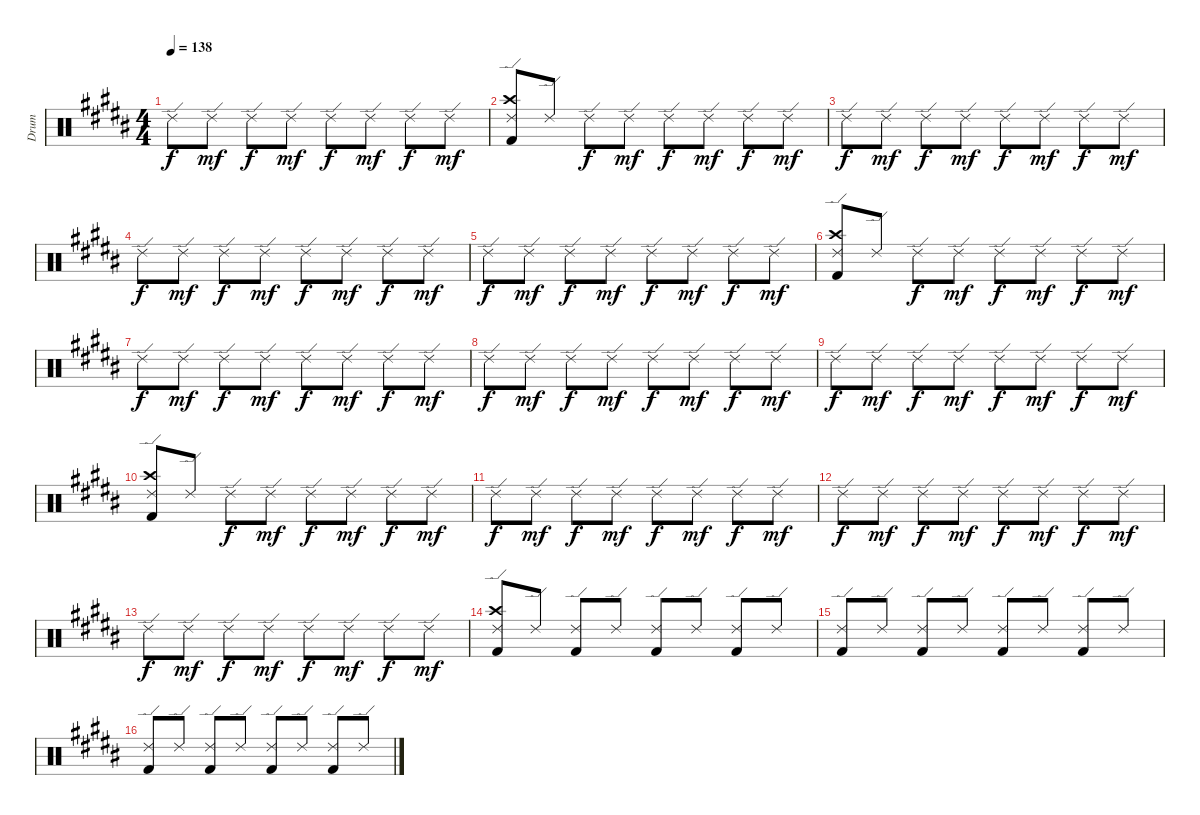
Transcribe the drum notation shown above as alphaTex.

\track ("Drum" "Drum") {instrument percussion}
\staff {score}
\articulation defaults
\ts (4 4)
\tempo 138
\clef neutral
\ks g#minor "Ride (edge) 2".8{dy f} "Ride (edge) 2".8{dy mf} "Ride (edge) 2".8{dy f} "Ride (edge) 2".8{dy mf} "Ride (edge) 2".8{dy f} "Ride (edge) 2".8{dy mf} "Ride (edge) 2".8{dy f} "Ride (edge) 2".8{dy mf}
|
\ks b
("Ride (edge) 2" "Crash high (hit)" "Kick (hit) 2").8 "Ride (edge) 2".8 "Ride (edge) 2".8{dy f} "Ride (edge) 2".8{dy mf} "Ride (edge) 2".8{dy f} "Ride (edge) 2".8{dy mf} "Ride (edge) 2".8{dy f} "Ride (edge) 2".8{dy mf} |
\ks g#minor "Ride (edge) 2".8{dy f} "Ride (edge) 2".8{dy mf} "Ride (edge) 2".8{dy f} "Ride (edge) 2".8{dy mf} "Ride (edge) 2".8{dy f} "Ride (edge) 2".8{dy mf} "Ride (edge) 2".8{dy f} "Ride (edge) 2".8{dy mf}
|
"Ride (edge) 2".8{dy f} "Ride (edge) 2".8{dy mf} "Ride (edge) 2".8{dy f} "Ride (edge) 2".8{dy mf} "Ride (edge) 2".8{dy f} "Ride (edge) 2".8{dy mf} "Ride (edge) 2".8{dy f} "Ride (edge) 2".8{dy mf} |
"Ride (edge) 2".8{dy f} "Ride (edge) 2".8{dy mf} "Ride (edge) 2".8{dy f} "Ride (edge) 2".8{dy mf} "Ride (edge) 2".8{dy f} "Ride (edge) 2".8{dy mf} "Ride (edge) 2".8{dy f} "Ride (edge) 2".8{dy mf} |
\ks b
("Ride (edge) 2" "Crash high (hit)" "Kick (hit) 2").8 "Ride (edge) 2".8 "Ride (edge) 2".8{dy f} "Ride (edge) 2".8{dy mf} "Ride (edge) 2".8{dy f} "Ride (edge) 2".8{dy mf} "Ride (edge) 2".8{dy f} "Ride (edge) 2".8{dy mf} |
\ks g#minor "Ride (edge) 2".8{dy f} "Ride (edge) 2".8{dy mf} "Ride (edge) 2".8{dy f} "Ride (edge) 2".8{dy mf} "Ride (edge) 2".8{dy f} "Ride (edge) 2".8{dy mf} "Ride (edge) 2".8{dy f} "Ride (edge) 2".8{dy mf}
|
\ks b "Ride (edge) 2".8{dy f} "Ride (edge) 2".8{dy mf} "Ride (edge) 2".8{dy f} "Ride (edge) 2".8{dy mf} "Ride (edge) 2".8{dy f} "Ride (edge) 2".8{dy mf} "Ride (edge) 2".8{dy f} "Ride (edge) 2".8{dy mf}
|
\ks g#minor "Ride (edge) 2".8{dy f} "Ride (edge) 2".8{dy mf} "Ride (edge) 2".8{dy f} "Ride (edge) 2".8{dy mf} "Ride (edge) 2".8{dy f} "Ride (edge) 2".8{dy mf} "Ride (edge) 2".8{dy f} "Ride (edge) 2".8{dy mf}
|
\ks b
("Ride (edge) 2" "Crash high (hit)" "Kick (hit) 2").8 "Ride (edge) 2".8 "Ride (edge) 2".8{dy f} "Ride (edge) 2".8{dy mf} "Ride (edge) 2".8{dy f} "Ride (edge) 2".8{dy mf} "Ride (edge) 2".8{dy f} "Ride (edge) 2".8{dy mf} |
\ks g#minor "Ride (edge) 2".8{dy f} "Ride (edge) 2".8{dy mf} "Ride (edge) 2".8{dy f} "Ride (edge) 2".8{dy mf} "Ride (edge) 2".8{dy f} "Ride (edge) 2".8{dy mf} "Ride (edge) 2".8{dy f} "Ride (edge) 2".8{dy mf}
|
\ks b "Ride (edge) 2".8{dy f} "Ride (edge) 2".8{dy mf} "Ride (edge) 2".8{dy f} "Ride (edge) 2".8{dy mf} "Ride (edge) 2".8{dy f} "Ride (edge) 2".8{dy mf} "Ride (edge) 2".8{dy f} "Ride (edge) 2".8{dy mf}
|
\ks g#minor "Ride (edge) 2".8{dy f} "Ride (edge) 2".8{dy mf} "Ride (edge) 2".8{dy f} "Ride (edge) 2".8{dy mf} "Ride (edge) 2".8{dy f} "Ride (edge) 2".8{dy mf} "Ride (edge) 2".8{dy f} "Ride (edge) 2".8{dy mf}
|
\ks b
("Ride (edge) 2" "Crash high (hit)" "Kick (hit) 2").8 "Ride (edge) 2".8 ("Ride (edge) 2" "Kick (hit) 2").8 "Ride (edge) 2".8 ("Ride (edge) 2" "Kick (hit) 2").8 "Ride (edge) 2".8 ("Ride (edge) 2" "Kick (hit) 2").8 "Ride (edge) 2".8 |
\ks g#minor
("Ride (edge) 2" "Kick (hit) 2").8 "Ride (edge) 2".8 ("Ride (edge) 2" "Kick (hit) 2").8 "Ride (edge) 2".8 ("Ride (edge) 2" "Kick (hit) 2").8 "Ride (edge) 2".8 ("Ride (edge) 2" "Kick (hit) 2").8 "Ride (edge) 2".8 |
\ks b
("Ride (edge) 2" "Kick (hit) 2").8 "Ride (edge) 2".8 ("Ride (edge) 2" "Kick (hit) 2").8 "Ride (edge) 2".8 ("Ride (edge) 2" "Kick (hit) 2").8 "Ride (edge) 2".8 ("Ride (edge) 2" "Kick (hit) 2").8 "Ride (edge) 2".8
